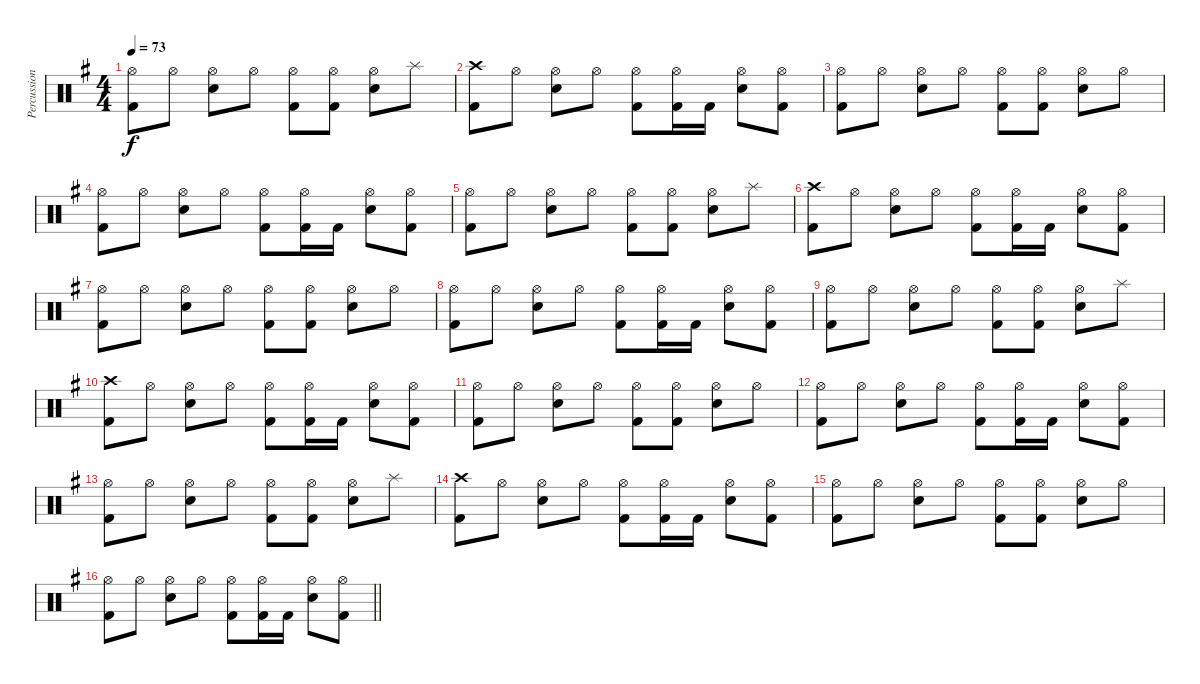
\track ("Percussions" "Percussion") {instrument percussion}
\staff {score}
\articulation defaults
\ts (4 4)
\tempo 73
\clef neutral
\ks g
("Hi-Hat (open)" "Kick (hit) 2").8{dy f} "Hi-Hat (open)".8 ("Hi-Hat (open)" "Snare (hit) 2").8 "Hi-Hat (open)".8 ("Hi-Hat (open)" "Kick (hit) 2").8 ("Hi-Hat (open)" "Kick (hit) 2").8 ("Hi-Hat (open)" "Snare (hit) 2").8 "Splash (hit)".8 |
("Crash high (hit)" "Kick (hit) 2").8 "Hi-Hat (open)".8 ("Hi-Hat (open)" "Snare (hit) 2").8 "Hi-Hat (open)".8 ("Hi-Hat (open)" "Kick (hit) 2").8 ("Hi-Hat (open)" "Kick (hit) 2").16 "Kick (hit) 2".16 ("Hi-Hat (open)" "Snare (hit) 2").8 ("Hi-Hat (open)" "Kick (hit) 2").8 |
("Hi-Hat (open)" "Kick (hit) 2").8 "Hi-Hat (open)".8 ("Hi-Hat (open)" "Snare (hit) 2").8 "Hi-Hat (open)".8 ("Hi-Hat (open)" "Kick (hit) 2").8 ("Hi-Hat (open)" "Kick (hit) 2").8 ("Hi-Hat (open)" "Snare (hit) 2").8 "Hi-Hat (open)".8 |
("Hi-Hat (open)" "Kick (hit) 2").8 "Hi-Hat (open)".8 ("Hi-Hat (open)" "Snare (hit) 2").8 "Hi-Hat (open)".8 ("Hi-Hat (open)" "Kick (hit) 2").8 ("Hi-Hat (open)" "Kick (hit) 2").16 "Kick (hit) 2".16 ("Hi-Hat (open)" "Snare (hit) 2").8 ("Hi-Hat (open)" "Kick (hit) 2").8 |
("Hi-Hat (open)" "Kick (hit) 2").8 "Hi-Hat (open)".8 ("Hi-Hat (open)" "Snare (hit) 2").8 "Hi-Hat (open)".8 ("Hi-Hat (open)" "Kick (hit) 2").8 ("Hi-Hat (open)" "Kick (hit) 2").8 ("Hi-Hat (open)" "Snare (hit) 2").8 "Splash (hit)".8 |
("Crash high (hit)" "Kick (hit) 2").8 "Hi-Hat (open)".8 ("Hi-Hat (open)" "Snare (hit) 2").8 "Hi-Hat (open)".8 ("Hi-Hat (open)" "Kick (hit) 2").8 ("Hi-Hat (open)" "Kick (hit) 2").16 "Kick (hit) 2".16 ("Hi-Hat (open)" "Snare (hit) 2").8 ("Hi-Hat (open)" "Kick (hit) 2").8 |
("Hi-Hat (open)" "Kick (hit) 2").8 "Hi-Hat (open)".8 ("Hi-Hat (open)" "Snare (hit) 2").8 "Hi-Hat (open)".8 ("Hi-Hat (open)" "Kick (hit) 2").8 ("Hi-Hat (open)" "Kick (hit) 2").8 ("Hi-Hat (open)" "Snare (hit) 2").8 "Hi-Hat (open)".8 |
("Hi-Hat (open)" "Kick (hit) 2").8 "Hi-Hat (open)".8 ("Hi-Hat (open)" "Snare (hit) 2").8 "Hi-Hat (open)".8 ("Hi-Hat (open)" "Kick (hit) 2").8 ("Hi-Hat (open)" "Kick (hit) 2").16 "Kick (hit) 2".16 ("Hi-Hat (open)" "Snare (hit) 2").8 ("Hi-Hat (open)" "Kick (hit) 2").8 |
("Hi-Hat (open)" "Kick (hit) 2").8 "Hi-Hat (open)".8 ("Hi-Hat (open)" "Snare (hit) 2").8 "Hi-Hat (open)".8 ("Hi-Hat (open)" "Kick (hit) 2").8 ("Hi-Hat (open)" "Kick (hit) 2").8 ("Hi-Hat (open)" "Snare (hit) 2").8 "Splash (hit)".8 |
("Crash high (hit)" "Kick (hit) 2").8 "Hi-Hat (open)".8 ("Hi-Hat (open)" "Snare (hit) 2").8 "Hi-Hat (open)".8 ("Hi-Hat (open)" "Kick (hit) 2").8 ("Hi-Hat (open)" "Kick (hit) 2").16 "Kick (hit) 2".16 ("Hi-Hat (open)" "Snare (hit) 2").8 ("Hi-Hat (open)" "Kick (hit) 2").8 |
("Hi-Hat (open)" "Kick (hit) 2").8 "Hi-Hat (open)".8 ("Hi-Hat (open)" "Snare (hit) 2").8 "Hi-Hat (open)".8 ("Hi-Hat (open)" "Kick (hit) 2").8 ("Hi-Hat (open)" "Kick (hit) 2").8 ("Hi-Hat (open)" "Snare (hit) 2").8 "Hi-Hat (open)".8 |
("Hi-Hat (open)" "Kick (hit) 2").8 "Hi-Hat (open)".8 ("Hi-Hat (open)" "Snare (hit) 2").8 "Hi-Hat (open)".8 ("Hi-Hat (open)" "Kick (hit) 2").8 ("Hi-Hat (open)" "Kick (hit) 2").16 "Kick (hit) 2".16 ("Hi-Hat (open)" "Snare (hit) 2").8 ("Hi-Hat (open)" "Kick (hit) 2").8 |
("Hi-Hat (open)" "Kick (hit) 2").8 "Hi-Hat (open)".8 ("Hi-Hat (open)" "Snare (hit) 2").8 "Hi-Hat (open)".8 ("Hi-Hat (open)" "Kick (hit) 2").8 ("Hi-Hat (open)" "Kick (hit) 2").8 ("Hi-Hat (open)" "Snare (hit) 2").8 "Splash (hit)".8 |
("Crash high (hit)" "Kick (hit) 2").8 "Hi-Hat (open)".8 ("Hi-Hat (open)" "Snare (hit) 2").8 "Hi-Hat (open)".8 ("Hi-Hat (open)" "Kick (hit) 2").8 ("Hi-Hat (open)" "Kick (hit) 2").16 "Kick (hit) 2".16 ("Hi-Hat (open)" "Snare (hit) 2").8 ("Hi-Hat (open)" "Kick (hit) 2").8 |
("Hi-Hat (open)" "Kick (hit) 2").8 "Hi-Hat (open)".8 ("Hi-Hat (open)" "Snare (hit) 2").8 "Hi-Hat (open)".8 ("Hi-Hat (open)" "Kick (hit) 2").8 ("Hi-Hat (open)" "Kick (hit) 2").8 ("Hi-Hat (open)" "Snare (hit) 2").8 "Hi-Hat (open)".8 |
\barLineRight lightlight
("Hi-Hat (open)" "Kick (hit) 2").8 "Hi-Hat (open)".8 ("Hi-Hat (open)" "Snare (hit) 2").8 "Hi-Hat (open)".8 ("Hi-Hat (open)" "Kick (hit) 2").8 ("Hi-Hat (open)" "Kick (hit) 2").16 "Kick (hit) 2".16 ("Hi-Hat (open)" "Snare (hit) 2").8 ("Hi-Hat (open)" "Kick (hit) 2").8
